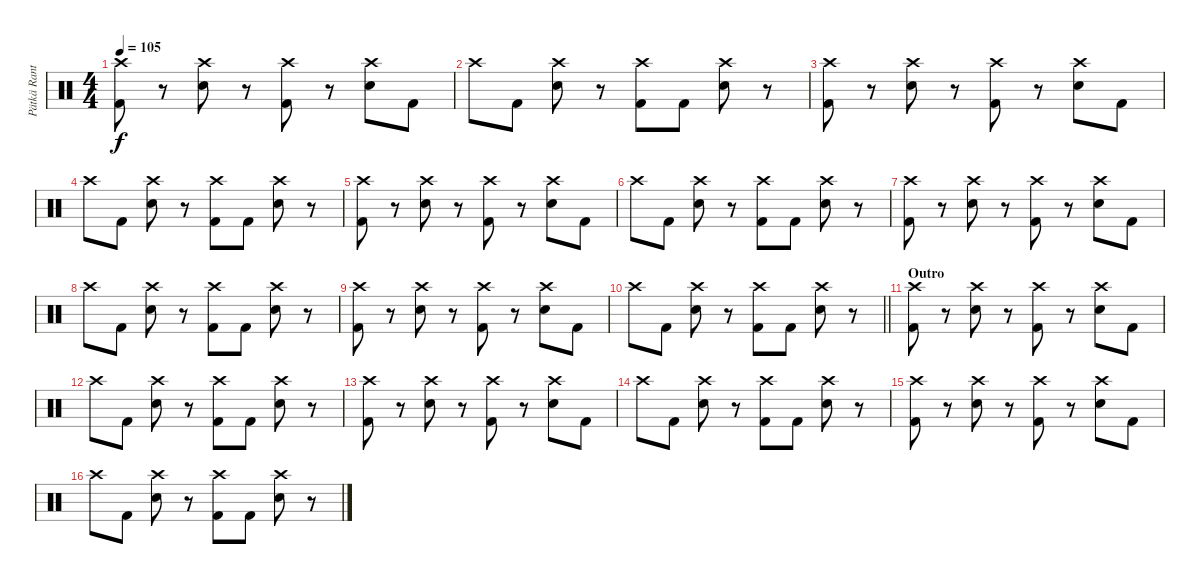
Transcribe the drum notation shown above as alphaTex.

\track ("Pätkä Rantala (Drums)" "Pätkä Rant") {instrument percussion}
\staff {score}
\articulation defaults
\ts (4 4)
\tempo 105
\clef neutral
\ks c
("Crash high (hit)" "Kick (hit) 2").8{dy f} r.8 ("Crash high (hit)" "Snare (hit) 2").8 r.8 ("Crash high (hit)" "Kick (hit) 2").8 r.8 ("Crash high (hit)" "Snare (hit) 2").8 "Kick (hit) 2".8 |
"Crash high (hit)".8 "Kick (hit) 2".8 ("Crash high (hit)" "Snare (hit) 2").8 r.8 ("Crash high (hit)" "Kick (hit) 2").8 "Kick (hit) 2".8 ("Crash high (hit)" "Snare (hit) 2").8 r.8 |
("Crash high (hit)" "Kick (hit) 2").8 r.8 ("Crash high (hit)" "Snare (hit) 2").8 r.8 ("Crash high (hit)" "Kick (hit) 2").8 r.8 ("Crash high (hit)" "Snare (hit) 2").8 "Kick (hit) 2".8 |
"Crash high (hit)".8 "Kick (hit) 2".8 ("Crash high (hit)" "Snare (hit) 2").8 r.8 ("Crash high (hit)" "Kick (hit) 2").8 "Kick (hit) 2".8 ("Crash high (hit)" "Snare (hit) 2").8 r.8 |
("Crash high (hit)" "Kick (hit) 2").8 r.8 ("Crash high (hit)" "Snare (hit) 2").8 r.8 ("Crash high (hit)" "Kick (hit) 2").8 r.8 ("Crash high (hit)" "Snare (hit) 2").8 "Kick (hit) 2".8 |
"Crash high (hit)".8 "Kick (hit) 2".8 ("Crash high (hit)" "Snare (hit) 2").8 r.8 ("Crash high (hit)" "Kick (hit) 2").8 "Kick (hit) 2".8 ("Crash high (hit)" "Snare (hit) 2").8 r.8 |
("Crash high (hit)" "Kick (hit) 2").8 r.8 ("Crash high (hit)" "Snare (hit) 2").8 r.8 ("Crash high (hit)" "Kick (hit) 2").8 r.8 ("Crash high (hit)" "Snare (hit) 2").8 "Kick (hit) 2".8 |
"Crash high (hit)".8 "Kick (hit) 2".8 ("Crash high (hit)" "Snare (hit) 2").8 r.8 ("Crash high (hit)" "Kick (hit) 2").8 "Kick (hit) 2".8 ("Crash high (hit)" "Snare (hit) 2").8 r.8 |
("Crash high (hit)" "Kick (hit) 2").8 r.8 ("Crash high (hit)" "Snare (hit) 2").8 r.8 ("Crash high (hit)" "Kick (hit) 2").8 r.8 ("Crash high (hit)" "Snare (hit) 2").8 "Kick (hit) 2".8 |
\barLineRight lightlight "Crash high (hit)".8 "Kick (hit) 2".8
("Crash high (hit)" "Snare (hit) 2").8 r.8 ("Crash high (hit)" "Kick (hit) 2").8 "Kick (hit) 2".8 ("Crash high (hit)" "Snare (hit) 2").8 r.8 |
\section ("" "Outro")
("Crash high (hit)" "Kick (hit) 2").8{volume 8} r.8 ("Crash high (hit)" "Snare (hit) 2").8 r.8 ("Crash high (hit)" "Kick (hit) 2").8 r.8 ("Crash high (hit)" "Snare (hit) 2").8 "Kick (hit) 2".8 |
"Crash high (hit)".8 "Kick (hit) 2".8 ("Crash high (hit)" "Snare (hit) 2").8 r.8 ("Crash high (hit)" "Kick (hit) 2").8 "Kick (hit) 2".8 ("Crash high (hit)" "Snare (hit) 2").8 r.8 |
("Crash high (hit)" "Kick (hit) 2").8 r.8 ("Crash high (hit)" "Snare (hit) 2").8 r.8 ("Crash high (hit)" "Kick (hit) 2").8 r.8 ("Crash high (hit)" "Snare (hit) 2").8 "Kick (hit) 2".8 |
"Crash high (hit)".8 "Kick (hit) 2".8 ("Crash high (hit)" "Snare (hit) 2").8 r.8 ("Crash high (hit)" "Kick (hit) 2").8 "Kick (hit) 2".8 ("Crash high (hit)" "Snare (hit) 2").8 r.8 |
("Crash high (hit)" "Kick (hit) 2").8{volume 3} r.8 ("Crash high (hit)" "Snare (hit) 2").8 r.8 ("Crash high (hit)" "Kick (hit) 2").8 r.8 ("Crash high (hit)" "Snare (hit) 2").8 "Kick (hit) 2".8 |
"Crash high (hit)".8 "Kick (hit) 2".8 ("Crash high (hit)" "Snare (hit) 2").8 r.8 ("Crash high (hit)" "Kick (hit) 2").8 "Kick (hit) 2".8 ("Crash high (hit)" "Snare (hit) 2").8 r.8
